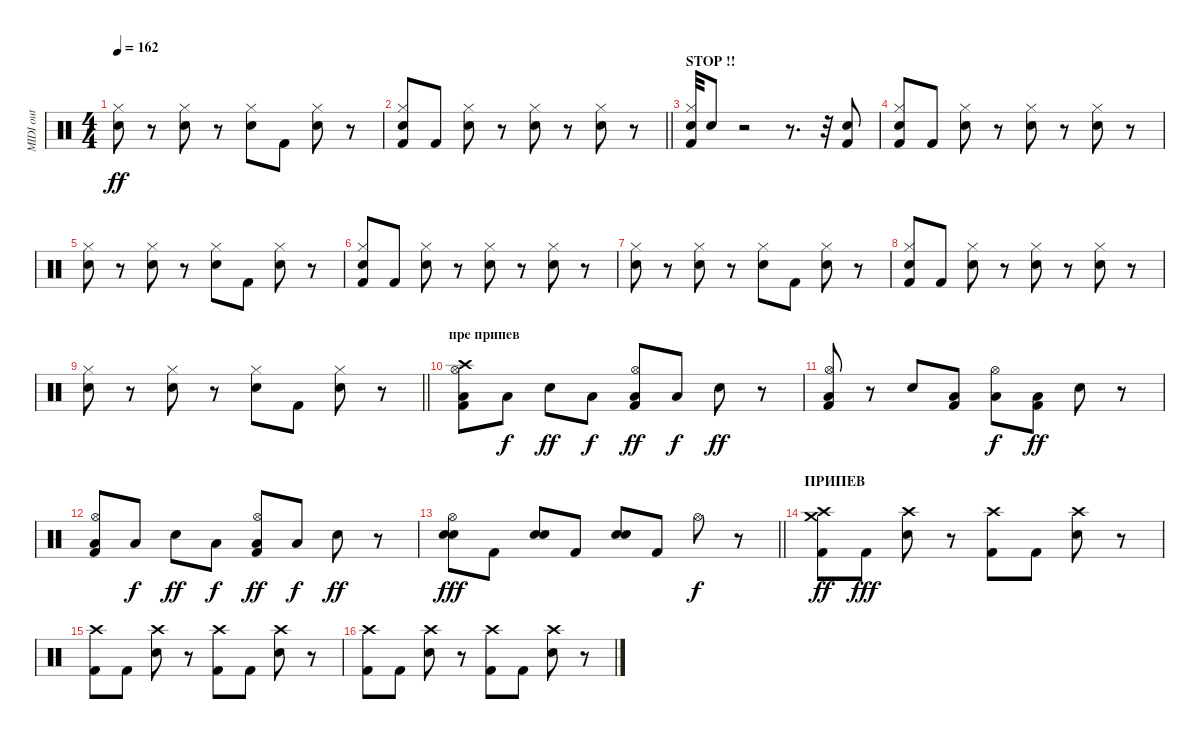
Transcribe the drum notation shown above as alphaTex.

\track ("MIDI out" "MIDI out") {instrument percussion}
\staff {score}
\articulation defaults
\ts (4 4)
\tempo 162
\clef neutral
\ks c
("Snare (hit) 2" "Hi-Hat (closed)").8{dy ff} r.8 ("Snare (hit) 2" "Hi-Hat (closed)").8 r.8 ("Snare (hit) 2" "Hi-Hat (closed)").8 "Kick (hit) 2".8 ("Snare (hit) 2" "Hi-Hat (closed)").8 r.8 |
\barLineRight lightlight
("Snare (hit) 2" "Kick (hit) 2" "Hi-Hat (closed)").8 "Kick (hit) 2".8 ("Snare (hit) 2" "Hi-Hat (closed)").8 r.8 ("Snare (hit) 2" "Hi-Hat (closed)").8 r.8 ("Hi-Hat (closed)" "Snare (hit) 2").8 r.8 |
\section ("" "STOP !!")
("Hi-Hat (closed)" "Kick (hit) 2" "Snare (hit) 2").32 "Electric Snare (hit)".8 r.2 r.8{d} r.32 ("Snare (hit) 2" "Kick (hit) 2").8 |
("Snare (hit) 2" "Kick (hit) 2" "Hi-Hat (closed)").8 "Kick (hit) 2".8 ("Snare (hit) 2" "Hi-Hat (closed)").8 r.8 ("Snare (hit) 2" "Hi-Hat (closed)").8 r.8 ("Snare (hit) 2" "Hi-Hat (closed)").8 r.8 |
("Snare (hit) 2" "Hi-Hat (closed)").8 r.8 ("Snare (hit) 2" "Hi-Hat (closed)").8 r.8 ("Snare (hit) 2" "Hi-Hat (closed)").8 "Kick (hit) 2".8 ("Snare (hit) 2" "Hi-Hat (closed)").8 r.8 |
("Snare (hit) 2" "Kick (hit) 2" "Hi-Hat (closed)").8 "Kick (hit) 2".8 ("Snare (hit) 2" "Hi-Hat (closed)").8 r.8 ("Snare (hit) 2" "Hi-Hat (closed)").8 r.8 ("Snare (hit) 2" "Hi-Hat (closed)").8 r.8 |
("Snare (hit) 2" "Hi-Hat (closed)").8 r.8 ("Snare (hit) 2" "Hi-Hat (closed)").8 r.8 ("Snare (hit) 2" "Hi-Hat (closed)").8 "Kick (hit) 2".8 ("Snare (hit) 2" "Hi-Hat (closed)").8 r.8 |
("Snare (hit) 2" "Kick (hit) 2" "Hi-Hat (closed)").8 "Kick (hit) 2".8 ("Snare (hit) 2" "Hi-Hat (closed)").8 r.8 ("Snare (hit) 2" "Hi-Hat (closed)").8 r.8 ("Snare (hit) 2" "Hi-Hat (closed)").8 r.8 |
\barLineRight lightlight
("Snare (hit) 2" "Hi-Hat (closed)").8 r.8 ("Snare (hit) 2" "Hi-Hat (closed)").8 r.8 ("Snare (hit) 2" "Hi-Hat (closed)").8 "Kick (hit) 2".8 ("Snare (hit) 2" "Hi-Hat (closed)").8 r.8 |
\section ("" "пре припев")
("Hi-Hat (open)" "Low Floor Tom (hit)" "Kick (hit) 2" "Crash high (hit)").8 "Low Floor Tom (hit)".8{dy f} "Snare (hit) 2".8{dy ff} "Low Floor Tom (hit)".8{dy f} ("Hi-Hat (open)" "Low Floor Tom (hit)" "Kick (hit) 2").8{dy ff} "Low Floor Tom (hit)".8{dy f} "Snare (hit) 2".8{dy ff} r.8 |
("Hi-Hat (open)" "Kick (hit) 2" "Low Floor Tom (hit)").8 r.8 "Snare (hit) 2".8 ("Low Floor Tom (hit)" "Kick (hit) 2").8 ("Hi-Hat (open)" "Low Floor Tom (hit)").8{dy f} ("Low Floor Tom (hit)" "Kick (hit) 2").8{dy ff} "Snare (hit) 2".8 r.8 |
("Hi-Hat (open)" "Low Floor Tom (hit)" "Kick (hit) 2").8 "Low Floor Tom (hit)".8{dy f} "Snare (hit) 2".8{dy ff} "Low Floor Tom (hit)".8{dy f} ("Hi-Hat (open)" "Low Floor Tom (hit)" "Kick (hit) 2").8{dy ff} "Low Floor Tom (hit)".8{dy f} "Snare (hit) 2".8{dy ff} r.8 |
\barLineRight lightlight
("Electric Snare (hit)" "Snare (hit) 2" "Hi-Hat (open)").8{dy fff} "Kick (hit) 2".8 ("Electric Snare (hit)" "Snare (hit) 2").8 "Kick (hit) 2".8 ("Electric Snare (hit)" "Snare (hit) 2").8 "Kick (hit) 2".8 "Hi-Hat (open)".8{dy f} r.8 |
\section ("" "ПРИПЕВ")
("Kick (hit) 2" "Crash high (hit)" "Crash medium (hit)").8{dy ff} "Kick (hit) 2".8{dy fff} ("Crash high (hit)" "Snare (hit) 2").8 r.8 ("Crash high (hit)" "Kick (hit) 2").8 "Kick (hit) 2".8 ("Crash high (hit)" "Snare (hit) 2").8 r.8 |
("Crash high (hit)" "Kick (hit) 2").8 "Kick (hit) 2".8 ("Crash high (hit)" "Snare (hit) 2").8 r.8 ("Crash high (hit)" "Kick (hit) 2").8 "Kick (hit) 2".8 ("Crash high (hit)" "Snare (hit) 2").8 r.8 |
("Kick (hit) 2" "Crash high (hit)").8 "Kick (hit) 2".8 ("Crash high (hit)" "Snare (hit) 2").8 r.8 ("Crash high (hit)" "Kick (hit) 2").8 "Kick (hit) 2".8 ("Crash high (hit)" "Snare (hit) 2").8 r.8
